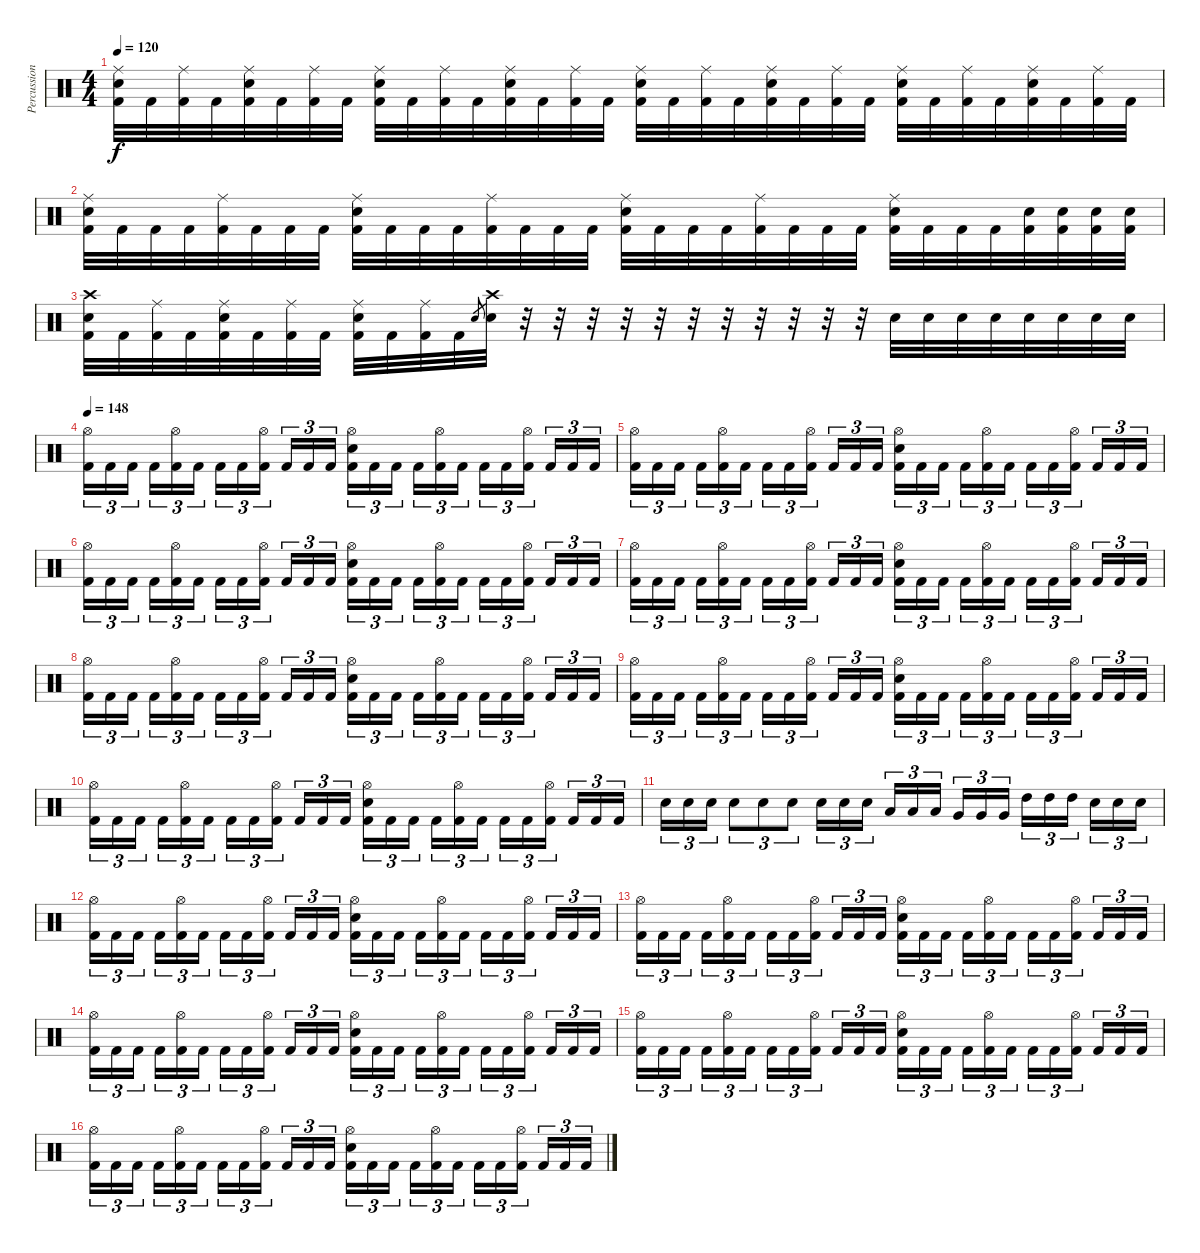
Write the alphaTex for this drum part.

\track ("Percussion" "Percussion") {instrument percussion}
\staff {score}
\articulation defaults
\ts (4 4)
\tempo 120
\clef neutral
\ks c
("Ride (middle)" "Electric Snare (hit)" "Kick (hit) 2").32{dy f} "Kick (hit) 2".32 ("Ride (middle)" "Kick (hit) 2").32 "Kick (hit) 2".32 ("Ride (middle)" "Electric Snare (hit)" "Kick (hit) 2").32 "Kick (hit) 2".32 ("Ride (middle)" "Kick (hit) 2").32 "Kick (hit) 2".32 ("Ride (middle)" "Electric Snare (hit)" "Kick (hit) 2").32 "Kick (hit) 2".32 ("Ride (middle)" "Kick (hit) 2").32 "Kick (hit) 2".32 ("Ride (middle)" "Electric Snare (hit)" "Kick (hit) 2").32 "Kick (hit) 2".32 ("Ride (middle)" "Kick (hit) 2").32 "Kick (hit) 2".32 ("Ride (middle)" "Electric Snare (hit)" "Kick (hit) 2").32 "Kick (hit) 2".32 ("Ride (middle)" "Kick (hit) 2").32 "Kick (hit) 2".32 ("Ride (middle)" "Electric Snare (hit)" "Kick (hit) 2").32 "Kick (hit) 2".32 ("Ride (middle)" "Kick (hit) 2").32 "Kick (hit) 2".32 ("Ride (middle)" "Electric Snare (hit)" "Kick (hit) 2").32 "Kick (hit) 2".32 ("Ride (middle)" "Kick (hit) 2").32 "Kick (hit) 2".32 ("Ride (middle)" "Electric Snare (hit)" "Kick (hit) 2").32 "Kick (hit) 2".32 ("Ride (middle)" "Kick (hit) 2").32 "Kick (hit) 2".32 |
("Ride (middle)" "Electric Snare (hit)" "Kick (hit) 2").32 "Kick (hit) 2".32 "Kick (hit) 2".32 "Kick (hit) 2".32 ("Ride (middle)" "Kick (hit) 2").32 "Kick (hit) 2".32 "Kick (hit) 2".32 "Kick (hit) 2".32 ("Ride (middle)" "Electric Snare (hit)" "Kick (hit) 2").32 "Kick (hit) 2".32 "Kick (hit) 2".32 "Kick (hit) 2".32 ("Ride (middle)" "Kick (hit) 2").32 "Kick (hit) 2".32 "Kick (hit) 2".32 "Kick (hit) 2".32 ("Ride (middle)" "Electric Snare (hit)" "Kick (hit) 2").32 "Kick (hit) 2".32 "Kick (hit) 2".32 "Kick (hit) 2".32 ("Ride (middle)" "Kick (hit) 2").32 "Kick (hit) 2".32 "Kick (hit) 2".32 "Kick (hit) 2".32 ("Ride (middle)" "Electric Snare (hit)" "Kick (hit) 2").32 "Kick (hit) 2".32 "Kick (hit) 2".32 "Kick (hit) 2".32 ("Electric Snare (hit)" "Kick (hit) 2").32 ("Electric Snare (hit)" "Kick (hit) 2").32 ("Electric Snare (hit)" "Kick (hit) 2").32 ("Electric Snare (hit)" "Kick (hit) 2").32 |
("Crash high (hit)" "Electric Snare (hit)" "Kick (hit) 2").32 "Kick (hit) 2".32 ("Ride (middle)" "Kick (hit) 2").32 "Kick (hit) 2".32 ("Ride (middle)" "Electric Snare (hit)" "Kick (hit) 2").32 "Kick (hit) 2".32 ("Ride (middle)" "Kick (hit) 2").32 "Kick (hit) 2".32 ("Ride (middle)" "Electric Snare (hit)" "Kick (hit) 2").32 "Kick (hit) 2".32 ("Ride (middle)" "Kick (hit) 2").32 "Kick (hit) 2".32 "Electric Snare (hit)".8{gr} ("Crash high (hit)" "Electric Snare (hit)").32 r.32 r.32 r.32 r.32 r.32 r.32 r.32 r.32 r.32 r.32 r.32 "Electric Snare (hit)".32 "Electric Snare (hit)".32 "Electric Snare (hit)".32 "Electric Snare (hit)".32 "Electric Snare (hit)".32 "Electric Snare (hit)".32 "Electric Snare (hit)".32 "Electric Snare (hit)".32 |
\tempo 148
("Hi-Hat (open)" "Kick (hit) 2").16{tu (3 2)} "Kick (hit) 2".16{tu (3 2)} "Kick (hit) 2".16{tu (3 2)} "Kick (hit) 2".16{tu (3 2)} ("Hi-Hat (open)" "Kick (hit) 2").16{tu (3 2)} "Kick (hit) 2".16{tu (3 2)} "Kick (hit) 2".16{tu (3 2)} "Kick (hit) 2".16{tu (3 2)} ("Hi-Hat (open)" "Kick (hit) 2").16{tu (3 2)} "Kick (hit) 2".16{tu (3 2)} "Kick (hit) 2".16{tu (3 2)} "Kick (hit) 2".16{tu (3 2)} ("Hi-Hat (open)" "Electric Snare (hit)" "Kick (hit) 2").16{tu (3 2)} "Kick (hit) 2".16{tu (3 2)} "Kick (hit) 2".16{tu (3 2)} "Kick (hit) 2".16{tu (3 2)} ("Hi-Hat (open)" "Kick (hit) 2").16{tu (3 2)} "Kick (hit) 2".16{tu (3 2)} "Kick (hit) 2".16{tu (3 2)} "Kick (hit) 2".16{tu (3 2)} ("Hi-Hat (open)" "Kick (hit) 2").16{tu (3 2)} "Kick (hit) 2".16{tu (3 2)} "Kick (hit) 2".16{tu (3 2)} "Kick (hit) 2".16{tu (3 2)} |
("Hi-Hat (open)" "Kick (hit) 2").16{tu (3 2)} "Kick (hit) 2".16{tu (3 2)} "Kick (hit) 2".16{tu (3 2)} "Kick (hit) 2".16{tu (3 2)} ("Hi-Hat (open)" "Kick (hit) 2").16{tu (3 2)} "Kick (hit) 2".16{tu (3 2)} "Kick (hit) 2".16{tu (3 2)} "Kick (hit) 2".16{tu (3 2)} ("Hi-Hat (open)" "Kick (hit) 2").16{tu (3 2)} "Kick (hit) 2".16{tu (3 2)} "Kick (hit) 2".16{tu (3 2)} "Kick (hit) 2".16{tu (3 2)} ("Hi-Hat (open)" "Electric Snare (hit)" "Kick (hit) 2").16{tu (3 2)} "Kick (hit) 2".16{tu (3 2)} "Kick (hit) 2".16{tu (3 2)} "Kick (hit) 2".16{tu (3 2)} ("Hi-Hat (open)" "Kick (hit) 2").16{tu (3 2)} "Kick (hit) 2".16{tu (3 2)} "Kick (hit) 2".16{tu (3 2)} "Kick (hit) 2".16{tu (3 2)} ("Hi-Hat (open)" "Kick (hit) 2").16{tu (3 2)} "Kick (hit) 2".16{tu (3 2)} "Kick (hit) 2".16{tu (3 2)} "Kick (hit) 2".16{tu (3 2)} |
("Hi-Hat (open)" "Kick (hit) 2").16{tu (3 2)} "Kick (hit) 2".16{tu (3 2)} "Kick (hit) 2".16{tu (3 2)} "Kick (hit) 2".16{tu (3 2)} ("Hi-Hat (open)" "Kick (hit) 2").16{tu (3 2)} "Kick (hit) 2".16{tu (3 2)} "Kick (hit) 2".16{tu (3 2)} "Kick (hit) 2".16{tu (3 2)} ("Hi-Hat (open)" "Kick (hit) 2").16{tu (3 2)} "Kick (hit) 2".16{tu (3 2)} "Kick (hit) 2".16{tu (3 2)} "Kick (hit) 2".16{tu (3 2)} ("Hi-Hat (open)" "Electric Snare (hit)" "Kick (hit) 2").16{tu (3 2)} "Kick (hit) 2".16{tu (3 2)} "Kick (hit) 2".16{tu (3 2)} "Kick (hit) 2".16{tu (3 2)} ("Hi-Hat (open)" "Kick (hit) 2").16{tu (3 2)} "Kick (hit) 2".16{tu (3 2)} "Kick (hit) 2".16{tu (3 2)} "Kick (hit) 2".16{tu (3 2)} ("Hi-Hat (open)" "Kick (hit) 2").16{tu (3 2)} "Kick (hit) 2".16{tu (3 2)} "Kick (hit) 2".16{tu (3 2)} "Kick (hit) 2".16{tu (3 2)} |
("Hi-Hat (open)" "Kick (hit) 2").16{tu (3 2)} "Kick (hit) 2".16{tu (3 2)} "Kick (hit) 2".16{tu (3 2)} "Kick (hit) 2".16{tu (3 2)} ("Hi-Hat (open)" "Kick (hit) 2").16{tu (3 2)} "Kick (hit) 2".16{tu (3 2)} "Kick (hit) 2".16{tu (3 2)} "Kick (hit) 2".16{tu (3 2)} ("Hi-Hat (open)" "Kick (hit) 2").16{tu (3 2)} "Kick (hit) 2".16{tu (3 2)} "Kick (hit) 2".16{tu (3 2)} "Kick (hit) 2".16{tu (3 2)} ("Hi-Hat (open)" "Electric Snare (hit)" "Kick (hit) 2").16{tu (3 2)} "Kick (hit) 2".16{tu (3 2)} "Kick (hit) 2".16{tu (3 2)} "Kick (hit) 2".16{tu (3 2)} ("Hi-Hat (open)" "Kick (hit) 2").16{tu (3 2)} "Kick (hit) 2".16{tu (3 2)} "Kick (hit) 2".16{tu (3 2)} "Kick (hit) 2".16{tu (3 2)} ("Hi-Hat (open)" "Kick (hit) 2").16{tu (3 2)} "Kick (hit) 2".16{tu (3 2)} "Kick (hit) 2".16{tu (3 2)} "Kick (hit) 2".16{tu (3 2)} |
("Hi-Hat (open)" "Kick (hit) 2").16{tu (3 2)} "Kick (hit) 2".16{tu (3 2)} "Kick (hit) 2".16{tu (3 2)} "Kick (hit) 2".16{tu (3 2)} ("Hi-Hat (open)" "Kick (hit) 2").16{tu (3 2)} "Kick (hit) 2".16{tu (3 2)} "Kick (hit) 2".16{tu (3 2)} "Kick (hit) 2".16{tu (3 2)} ("Hi-Hat (open)" "Kick (hit) 2").16{tu (3 2)} "Kick (hit) 2".16{tu (3 2)} "Kick (hit) 2".16{tu (3 2)} "Kick (hit) 2".16{tu (3 2)} ("Hi-Hat (open)" "Electric Snare (hit)" "Kick (hit) 2").16{tu (3 2)} "Kick (hit) 2".16{tu (3 2)} "Kick (hit) 2".16{tu (3 2)} "Kick (hit) 2".16{tu (3 2)} ("Hi-Hat (open)" "Kick (hit) 2").16{tu (3 2)} "Kick (hit) 2".16{tu (3 2)} "Kick (hit) 2".16{tu (3 2)} "Kick (hit) 2".16{tu (3 2)} ("Hi-Hat (open)" "Kick (hit) 2").16{tu (3 2)} "Kick (hit) 2".16{tu (3 2)} "Kick (hit) 2".16{tu (3 2)} "Kick (hit) 2".16{tu (3 2)} |
("Hi-Hat (open)" "Kick (hit) 2").16{tu (3 2)} "Kick (hit) 2".16{tu (3 2)} "Kick (hit) 2".16{tu (3 2)} "Kick (hit) 2".16{tu (3 2)} ("Hi-Hat (open)" "Kick (hit) 2").16{tu (3 2)} "Kick (hit) 2".16{tu (3 2)} "Kick (hit) 2".16{tu (3 2)} "Kick (hit) 2".16{tu (3 2)} ("Hi-Hat (open)" "Kick (hit) 2").16{tu (3 2)} "Kick (hit) 2".16{tu (3 2)} "Kick (hit) 2".16{tu (3 2)} "Kick (hit) 2".16{tu (3 2)} ("Hi-Hat (open)" "Electric Snare (hit)" "Kick (hit) 2").16{tu (3 2)} "Kick (hit) 2".16{tu (3 2)} "Kick (hit) 2".16{tu (3 2)} "Kick (hit) 2".16{tu (3 2)} ("Hi-Hat (open)" "Kick (hit) 2").16{tu (3 2)} "Kick (hit) 2".16{tu (3 2)} "Kick (hit) 2".16{tu (3 2)} "Kick (hit) 2".16{tu (3 2)} ("Hi-Hat (open)" "Kick (hit) 2").16{tu (3 2)} "Kick (hit) 2".16{tu (3 2)} "Kick (hit) 2".16{tu (3 2)} "Kick (hit) 2".16{tu (3 2)} |
("Hi-Hat (open)" "Kick (hit) 2").16{tu (3 2)} "Kick (hit) 2".16{tu (3 2)} "Kick (hit) 2".16{tu (3 2)} "Kick (hit) 2".16{tu (3 2)} ("Hi-Hat (open)" "Kick (hit) 2").16{tu (3 2)} "Kick (hit) 2".16{tu (3 2)} "Kick (hit) 2".16{tu (3 2)} "Kick (hit) 2".16{tu (3 2)} ("Hi-Hat (open)" "Kick (hit) 2").16{tu (3 2)} "Kick (hit) 2".16{tu (3 2)} "Kick (hit) 2".16{tu (3 2)} "Kick (hit) 2".16{tu (3 2)} ("Hi-Hat (open)" "Electric Snare (hit)" "Kick (hit) 2").16{tu (3 2)} "Kick (hit) 2".16{tu (3 2)} "Kick (hit) 2".16{tu (3 2)} "Kick (hit) 2".16{tu (3 2)} ("Hi-Hat (open)" "Kick (hit) 2").16{tu (3 2)} "Kick (hit) 2".16{tu (3 2)} "Kick (hit) 2".16{tu (3 2)} "Kick (hit) 2".16{tu (3 2)} ("Hi-Hat (open)" "Kick (hit) 2").16{tu (3 2)} "Kick (hit) 2".16{tu (3 2)} "Kick (hit) 2".16{tu (3 2)} "Kick (hit) 2".16{tu (3 2)} |
"Electric Snare (hit)".16{tu (3 2)} "Electric Snare (hit)".16{tu (3 2)} "Electric Snare (hit)".16{tu (3 2)} "Electric Snare (hit)".8{tu (3 2)} "Electric Snare (hit)".8{tu (3 2)} "Electric Snare (hit)".8{tu (3 2)} "Electric Snare (hit)".16{tu (3 2)} "Electric Snare (hit)".16{tu (3 2)} "Electric Snare (hit)".16{tu (3 2)} "Low Tom (hit)".16{tu (3 2)} "Low Tom (hit)".16{tu (3 2)} "Low Tom (hit)".16{tu (3 2)} "Very Low Tom (hit)".16{tu (3 2)} "Very Low Tom (hit)".16{tu (3 2)} "Very Low Tom (hit)".16{tu (3 2)} "High Tom (hit)".16{tu (3 2)} "High Tom (hit)".16{tu (3 2)} "High Tom (hit)".16{tu (3 2)} "Electric Snare (hit)".16{tu (3 2)} "Electric Snare (hit)".16{tu (3 2)} "Electric Snare (hit)".16{tu (3 2)} |
("Hi-Hat (open)" "Kick (hit) 2").16{tu (3 2)} "Kick (hit) 2".16{tu (3 2)} "Kick (hit) 2".16{tu (3 2)} "Kick (hit) 2".16{tu (3 2)} ("Hi-Hat (open)" "Kick (hit) 2").16{tu (3 2)} "Kick (hit) 2".16{tu (3 2)} "Kick (hit) 2".16{tu (3 2)} "Kick (hit) 2".16{tu (3 2)} ("Hi-Hat (open)" "Kick (hit) 2").16{tu (3 2)} "Kick (hit) 2".16{tu (3 2)} "Kick (hit) 2".16{tu (3 2)} "Kick (hit) 2".16{tu (3 2)} ("Hi-Hat (open)" "Electric Snare (hit)" "Kick (hit) 2").16{tu (3 2)} "Kick (hit) 2".16{tu (3 2)} "Kick (hit) 2".16{tu (3 2)} "Kick (hit) 2".16{tu (3 2)} ("Hi-Hat (open)" "Kick (hit) 2").16{tu (3 2)} "Kick (hit) 2".16{tu (3 2)} "Kick (hit) 2".16{tu (3 2)} "Kick (hit) 2".16{tu (3 2)} ("Hi-Hat (open)" "Kick (hit) 2").16{tu (3 2)} "Kick (hit) 2".16{tu (3 2)} "Kick (hit) 2".16{tu (3 2)} "Kick (hit) 2".16{tu (3 2)} |
("Hi-Hat (open)" "Kick (hit) 2").16{tu (3 2)} "Kick (hit) 2".16{tu (3 2)} "Kick (hit) 2".16{tu (3 2)} "Kick (hit) 2".16{tu (3 2)} ("Hi-Hat (open)" "Kick (hit) 2").16{tu (3 2)} "Kick (hit) 2".16{tu (3 2)} "Kick (hit) 2".16{tu (3 2)} "Kick (hit) 2".16{tu (3 2)} ("Hi-Hat (open)" "Kick (hit) 2").16{tu (3 2)} "Kick (hit) 2".16{tu (3 2)} "Kick (hit) 2".16{tu (3 2)} "Kick (hit) 2".16{tu (3 2)} ("Hi-Hat (open)" "Electric Snare (hit)" "Kick (hit) 2").16{tu (3 2)} "Kick (hit) 2".16{tu (3 2)} "Kick (hit) 2".16{tu (3 2)} "Kick (hit) 2".16{tu (3 2)} ("Hi-Hat (open)" "Kick (hit) 2").16{tu (3 2)} "Kick (hit) 2".16{tu (3 2)} "Kick (hit) 2".16{tu (3 2)} "Kick (hit) 2".16{tu (3 2)} ("Hi-Hat (open)" "Kick (hit) 2").16{tu (3 2)} "Kick (hit) 2".16{tu (3 2)} "Kick (hit) 2".16{tu (3 2)} "Kick (hit) 2".16{tu (3 2)} |
("Hi-Hat (open)" "Kick (hit) 2").16{tu (3 2)} "Kick (hit) 2".16{tu (3 2)} "Kick (hit) 2".16{tu (3 2)} "Kick (hit) 2".16{tu (3 2)} ("Hi-Hat (open)" "Kick (hit) 2").16{tu (3 2)} "Kick (hit) 2".16{tu (3 2)} "Kick (hit) 2".16{tu (3 2)} "Kick (hit) 2".16{tu (3 2)} ("Hi-Hat (open)" "Kick (hit) 2").16{tu (3 2)} "Kick (hit) 2".16{tu (3 2)} "Kick (hit) 2".16{tu (3 2)} "Kick (hit) 2".16{tu (3 2)} ("Hi-Hat (open)" "Electric Snare (hit)" "Kick (hit) 2").16{tu (3 2)} "Kick (hit) 2".16{tu (3 2)} "Kick (hit) 2".16{tu (3 2)} "Kick (hit) 2".16{tu (3 2)} ("Hi-Hat (open)" "Kick (hit) 2").16{tu (3 2)} "Kick (hit) 2".16{tu (3 2)} "Kick (hit) 2".16{tu (3 2)} "Kick (hit) 2".16{tu (3 2)} ("Hi-Hat (open)" "Kick (hit) 2").16{tu (3 2)} "Kick (hit) 2".16{tu (3 2)} "Kick (hit) 2".16{tu (3 2)} "Kick (hit) 2".16{tu (3 2)} |
("Hi-Hat (open)" "Kick (hit) 2").16{tu (3 2)} "Kick (hit) 2".16{tu (3 2)} "Kick (hit) 2".16{tu (3 2)} "Kick (hit) 2".16{tu (3 2)} ("Hi-Hat (open)" "Kick (hit) 2").16{tu (3 2)} "Kick (hit) 2".16{tu (3 2)} "Kick (hit) 2".16{tu (3 2)} "Kick (hit) 2".16{tu (3 2)} ("Hi-Hat (open)" "Kick (hit) 2").16{tu (3 2)} "Kick (hit) 2".16{tu (3 2)} "Kick (hit) 2".16{tu (3 2)} "Kick (hit) 2".16{tu (3 2)} ("Hi-Hat (open)" "Electric Snare (hit)" "Kick (hit) 2").16{tu (3 2)} "Kick (hit) 2".16{tu (3 2)} "Kick (hit) 2".16{tu (3 2)} "Kick (hit) 2".16{tu (3 2)} ("Hi-Hat (open)" "Kick (hit) 2").16{tu (3 2)} "Kick (hit) 2".16{tu (3 2)} "Kick (hit) 2".16{tu (3 2)} "Kick (hit) 2".16{tu (3 2)} ("Hi-Hat (open)" "Kick (hit) 2").16{tu (3 2)} "Kick (hit) 2".16{tu (3 2)} "Kick (hit) 2".16{tu (3 2)} "Kick (hit) 2".16{tu (3 2)} |
("Hi-Hat (open)" "Kick (hit) 2").16{tu (3 2)} "Kick (hit) 2".16{tu (3 2)} "Kick (hit) 2".16{tu (3 2)} "Kick (hit) 2".16{tu (3 2)} ("Hi-Hat (open)" "Kick (hit) 2").16{tu (3 2)} "Kick (hit) 2".16{tu (3 2)} "Kick (hit) 2".16{tu (3 2)} "Kick (hit) 2".16{tu (3 2)} ("Hi-Hat (open)" "Kick (hit) 2").16{tu (3 2)} "Kick (hit) 2".16{tu (3 2)} "Kick (hit) 2".16{tu (3 2)} "Kick (hit) 2".16{tu (3 2)} ("Hi-Hat (open)" "Electric Snare (hit)" "Kick (hit) 2").16{tu (3 2)} "Kick (hit) 2".16{tu (3 2)} "Kick (hit) 2".16{tu (3 2)} "Kick (hit) 2".16{tu (3 2)} ("Hi-Hat (open)" "Kick (hit) 2").16{tu (3 2)} "Kick (hit) 2".16{tu (3 2)} "Kick (hit) 2".16{tu (3 2)} "Kick (hit) 2".16{tu (3 2)} ("Hi-Hat (open)" "Kick (hit) 2").16{tu (3 2)} "Kick (hit) 2".16{tu (3 2)} "Kick (hit) 2".16{tu (3 2)} "Kick (hit) 2".16{tu (3 2)}
